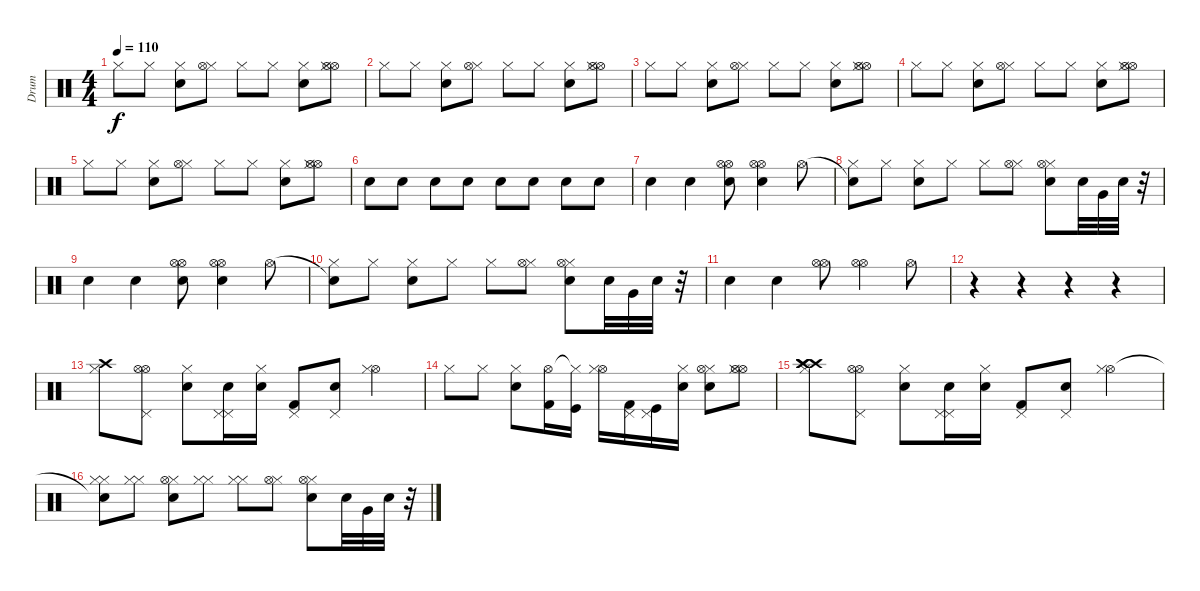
\track ("Drum" "Drum") {instrument percussion}
\staff {score}
\articulation defaults
\ts (4 4)
\tempo 110
\clef neutral
\ks c "Hi-Hat (closed)".8{dy f} "Hi-Hat (closed)".8
("Electric Snare (hit)" "Hi-Hat (closed)").8 ("Hi-Hat (closed)" "Hi-Hat (open)").8 "Hi-Hat (closed)".8 "Hi-Hat (closed)".8 ("Electric Snare (hit)" "Hi-Hat (closed)").8 ("Hi-Hat (open)" "Hi-Hat (closed)" "Hi-Hat (open)").8 |
"Hi-Hat (closed)".8 "Hi-Hat (closed)".8 ("Electric Snare (hit)" "Hi-Hat (closed)").8 ("Hi-Hat (closed)" "Hi-Hat (open)").8 "Hi-Hat (closed)".8 "Hi-Hat (closed)".8 ("Electric Snare (hit)" "Hi-Hat (closed)").8 ("Hi-Hat (open)" "Hi-Hat (closed)" "Hi-Hat (open)").8 |
"Hi-Hat (closed)".8 "Hi-Hat (closed)".8 ("Electric Snare (hit)" "Hi-Hat (closed)").8 ("Hi-Hat (closed)" "Hi-Hat (open)").8 "Hi-Hat (closed)".8 "Hi-Hat (closed)".8 ("Electric Snare (hit)" "Hi-Hat (closed)").8 ("Hi-Hat (open)" "Hi-Hat (closed)" "Hi-Hat (open)").8 |
"Hi-Hat (closed)".8 "Hi-Hat (closed)".8 ("Electric Snare (hit)" "Hi-Hat (closed)").8 ("Hi-Hat (closed)" "Hi-Hat (open)").8 "Hi-Hat (closed)".8 "Hi-Hat (closed)".8 ("Electric Snare (hit)" "Hi-Hat (closed)").8 ("Hi-Hat (open)" "Hi-Hat (closed)" "Hi-Hat (open)").8 |
"Hi-Hat (closed)".8 "Hi-Hat (closed)".8 ("Electric Snare (hit)" "Hi-Hat (closed)").8 ("Hi-Hat (closed)" "Hi-Hat (open)").8 "Hi-Hat (closed)".8 "Hi-Hat (closed)".8 ("Electric Snare (hit)" "Hi-Hat (closed)").8 ("Hi-Hat (open)" "Hi-Hat (closed)" "Hi-Hat (open)").8 |
"Electric Snare (hit)".8 "Electric Snare (hit)".8 "Electric Snare (hit)".8 "Electric Snare (hit)".8 "Electric Snare (hit)".8 "Electric Snare (hit)".8 "Electric Snare (hit)".8 "Electric Snare (hit)".8 |
"Electric Snare (hit)".4 "Electric Snare (hit)".4 ("Hi-Hat (open)" "Hi-Hat (open)" "Electric Snare (hit)").8 ("Hi-Hat (open)" "Hi-Hat (open)" "Electric Snare (hit)").4 "Hi-Hat (open)".8 |
("Snare (hit)"{t} "Hi-Hat (closed)").8 "Hi-Hat (closed)".8 ("Electric Snare (hit)" "Hi-Hat (closed)").8 "Hi-Hat (closed)".8 "Hi-Hat (closed)".8 ("Hi-Hat (closed)" "Hi-Hat (open)").8 ("Electric Snare (hit)" "Hi-Hat (closed)" "Hi-Hat (open)").8 "Electric Snare (hit)".32 "Very Low Tom (hit)".32 "Electric Snare (hit)".32 r.32 |
"Electric Snare (hit)".4 "Electric Snare (hit)".4 ("Hi-Hat (open)" "Hi-Hat (open)" "Electric Snare (hit)").8 ("Hi-Hat (open)" "Hi-Hat (open)" "Electric Snare (hit)").4 "Hi-Hat (open)".8 |
("Snare (hit)"{t} "Hi-Hat (closed)").8 "Hi-Hat (closed)".8 ("Electric Snare (hit)" "Hi-Hat (closed)").8 "Hi-Hat (closed)".8 "Hi-Hat (closed)".8 ("Hi-Hat (closed)" "Hi-Hat (open)").8 ("Electric Snare (hit)" "Hi-Hat (closed)" "Hi-Hat (open)").8 "Electric Snare (hit)".32 "Very Low Tom (hit)".32 "Electric Snare (hit)".32 r.32 |
"Electric Snare (hit)".4 "Electric Snare (hit)".4 ("Hi-Hat (open)" "Hi-Hat (open)").8 ("Hi-Hat (open)" "Hi-Hat (open)").4 "Hi-Hat (open)".8 |
r.4 r.4 r.4 r.4 |
("Crash high (hit)" "Hi-Hat (closed)").8 ("Hi-Hat (open)" "Hi-Hat (open)" "Pedal Hi-Hat (hit)").8 ("Electric Snare (hit)" "Hi-Hat (closed)").8 ("Electric Snare (hit)" "Pedal Hi-Hat (hit)" "Pedal Hi-Hat (hit)").16 ("Hi-Hat (closed)" "Electric Snare (hit)").16 ("Pedal Hi-Hat (hit)" "Kick (hit) 2").8 ("Electric Snare (hit)" "Pedal Hi-Hat (hit)").8 ("Hi-Hat (open)" "Hi-Hat (closed)").4 |
"Hi-Hat (closed)".8 "Hi-Hat (closed)".8 ("Electric Snare (hit)" "Hi-Hat (closed)").8 ("Kick (hit) 2" "Hi-Hat (open)").16 ("Kick (hit)" "Hi-Hat (closed)"{t}).16 ("Hi-Hat (open)" "Hi-Hat (closed)").16 ("Kick (hit) 2" "Pedal Hi-Hat (hit)").16 ("Kick (hit)" "Pedal Hi-Hat (hit)").16 ("Electric Snare (hit)" "Hi-Hat (closed)").16 ("Electric Snare (hit)" "Hi-Hat (closed)" "Hi-Hat (open)").8 ("Hi-Hat (open)" "Hi-Hat (closed)" "Hi-Hat (open)").8 |
("Crash high (hit)" "Crash high (hit)" "Crash high (hit)" "Hi-Hat (closed)").8 ("Hi-Hat (open)" "Hi-Hat (open)" "Pedal Hi-Hat (hit)").8 ("Electric Snare (hit)" "Hi-Hat (closed)").8 ("Electric Snare (hit)" "Pedal Hi-Hat (hit)" "Pedal Hi-Hat (hit)").16 ("Hi-Hat (closed)" "Electric Snare (hit)").16 ("Pedal Hi-Hat (hit)" "Kick (hit) 2").8 ("Electric Snare (hit)" "Pedal Hi-Hat (hit)").8 ("Hi-Hat (open)" "Hi-Hat (closed)").4 |
("Snare (hit)"{t} "Hi-Hat (closed)" "Hi-Hat (closed)").8 ("Hi-Hat (closed)" "Hi-Hat (closed)").8 ("Electric Snare (hit)" "Hi-Hat (closed)" "Hi-Hat (open)").8 ("Hi-Hat (closed)" "Hi-Hat (closed)").8 ("Hi-Hat (closed)" "Hi-Hat (closed)").8 ("Hi-Hat (closed)" "Hi-Hat (open)").8 ("Electric Snare (hit)" "Hi-Hat (closed)" "Hi-Hat (open)").8 "Electric Snare (hit)".32 "Very Low Tom (hit)".32 "Electric Snare (hit)".32 r.32
